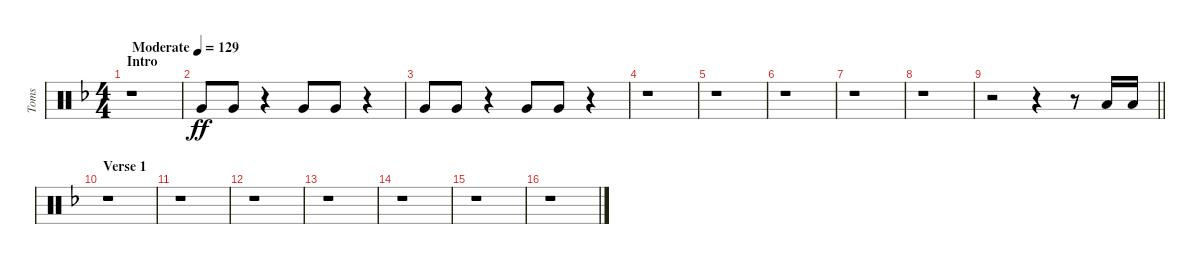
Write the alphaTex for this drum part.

\track ("Toms" "Toms") {instrument percussion}
\staff {score}
\articulation defaults
\ts (4 4)
\section ("" "Intro")
\tempo (129 "Moderate")
\clef neutral
\ks dminor
r.1{dy ff} |
"Very Low Tom (hit)".8{balance 3 beam Up} "Very Low Tom (hit)".8{beam Up} r.4 "Very Low Tom (hit)".8{beam Up} "Very Low Tom (hit)".8{beam Up} r.4 |
"Very Low Tom (hit)".8 "Very Low Tom (hit)".8 r.4 "Very Low Tom (hit)".8 "Very Low Tom (hit)".8 r.4 |
r.1 |
r.1 |
r.1 |
r.1 |
r.1 |
\barLineRight lightlight
r.2 r.4 r.8 "Low Tom (hit)".16{balance 6} "Low Tom (hit)".16 |
\section ("" "Verse 1")
r.1 |
r.1 |
r.1 |
r.1 |
r.1 |
r.1 |
r.1
